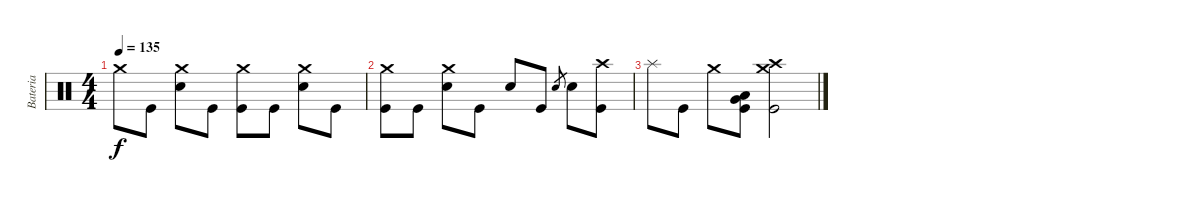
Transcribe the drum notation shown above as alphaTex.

\track ("Bateria" "Bateria") {instrument percussion}
\staff {score}
\articulation defaults
\ts (4 4)
\tempo 135
\clef neutral
\ks c "Crash medium (hit)".8{dy f} "Kick (hit)".8
("Crash medium (hit)" "Snare (hit) 2").8 "Kick (hit)".8 ("Crash medium (hit)" "Kick (hit)").8 "Kick (hit)".8 ("Crash medium (hit)" "Snare (hit) 2").8 "Kick (hit)".8 |
("Crash medium (hit)" "Kick (hit)").8 "Kick (hit)".8 ("Crash medium (hit)" "Snare (hit) 2").8 "Kick (hit)".8 "Snare (hit) 2".8 "Kick (hit)".8 "Snare (hit) 2".8{gr} "Snare (hit) 2".8 ("Crash high (hit)" "Kick (hit)").8 |
"Splash (hit)".8 "Kick (hit)".8 "Crash medium (hit)".8 ("Very Low Tom (hit)" "Low Tom (hit)" "Kick (hit)").8 ("Crash high (hit)" "Crash medium (hit)" "Kick (hit)").2
